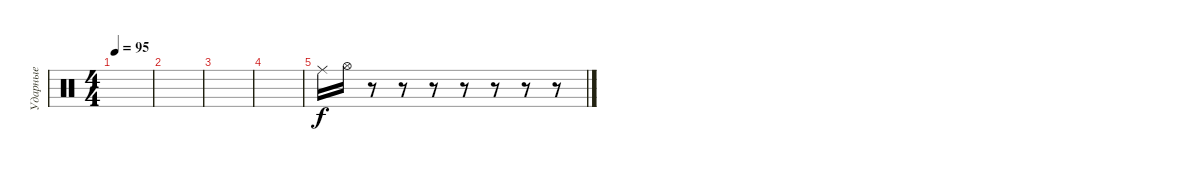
\track ("Ударные" "Ударные") {instrument percussion}
\staff {score}
\articulation defaults
\ts (4 4)
\tempo 95
\clef neutral
\ks c
|
|
|
|
"Ride (middle)".16 "Hi-Hat (open)".16 r.8 r.8 r.8 r.8 r.8 r.8 r.8
